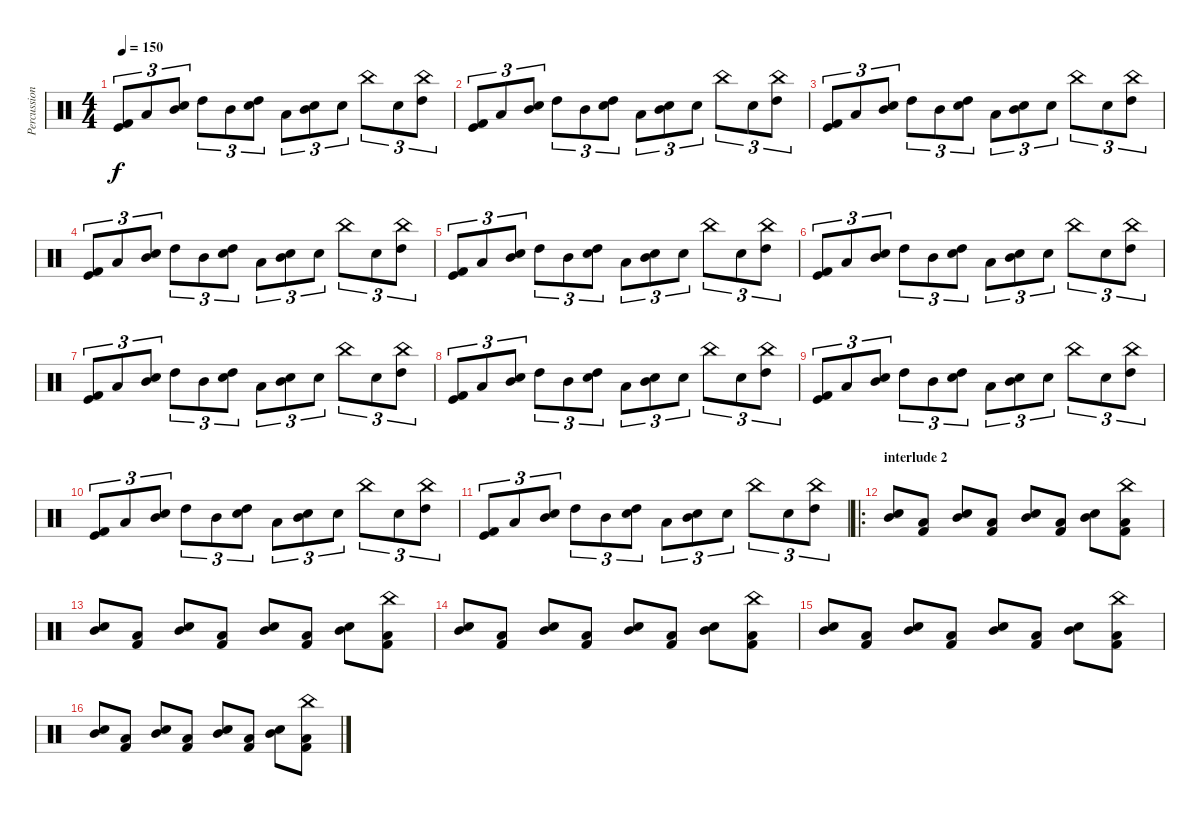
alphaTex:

\track ("Percussion" "Percussion") {instrument percussion}
\staff {score}
\articulation defaults
\ts (4 4)
\tempo 150
\clef neutral
\ks c
("Kick (hit) 2" "Kick (hit)").8{tu (3 2) dy f} "Low Tom (hit)".8{tu (3 2)} ("Mid Tom (hit)" "Snare (hit) 2").8{tu (3 2)} "High Tom (hit)".8{tu (3 2)} "Mid Tom (hit)".8{tu (3 2)} ("High Tom (hit)" "Snare (hit) 2").8{tu (3 2)} "Low Tom (hit)".8{tu (3 2)} ("Mid Tom (hit)" "Snare (hit) 2").8{tu (3 2)} "Snare (hit) 2".8{tu (3 2)} "China (hit)".8{tu (3 2)} "Snare (hit) 2".8{tu (3 2)} ("High Tom (hit)" "China (hit)").8{tu (3 2)} |
("Kick (hit) 2" "Kick (hit)").8{tu (3 2)} "Low Tom (hit)".8{tu (3 2)} ("Mid Tom (hit)" "Snare (hit) 2").8{tu (3 2)} "High Tom (hit)".8{tu (3 2)} "Mid Tom (hit)".8{tu (3 2)} ("High Tom (hit)" "Snare (hit) 2").8{tu (3 2)} "Low Tom (hit)".8{tu (3 2)} ("Mid Tom (hit)" "Snare (hit) 2").8{tu (3 2)} "Snare (hit) 2".8{tu (3 2)} "China (hit)".8{tu (3 2)} "Snare (hit) 2".8{tu (3 2)} ("High Tom (hit)" "China (hit)").8{tu (3 2)} |
("Kick (hit) 2" "Kick (hit)").8{tu (3 2)} "Low Tom (hit)".8{tu (3 2)} ("Mid Tom (hit)" "Snare (hit) 2").8{tu (3 2)} "High Tom (hit)".8{tu (3 2)} "Mid Tom (hit)".8{tu (3 2)} ("High Tom (hit)" "Snare (hit) 2").8{tu (3 2)} "Low Tom (hit)".8{tu (3 2)} ("Mid Tom (hit)" "Snare (hit) 2").8{tu (3 2)} "Snare (hit) 2".8{tu (3 2)} "China (hit)".8{tu (3 2)} "Snare (hit) 2".8{tu (3 2)} ("High Tom (hit)" "China (hit)").8{tu (3 2)} |
("Kick (hit) 2" "Kick (hit)").8{tu (3 2)} "Low Tom (hit)".8{tu (3 2)} ("Mid Tom (hit)" "Snare (hit) 2").8{tu (3 2)} "High Tom (hit)".8{tu (3 2)} "Mid Tom (hit)".8{tu (3 2)} ("High Tom (hit)" "Snare (hit) 2").8{tu (3 2)} "Low Tom (hit)".8{tu (3 2)} ("Mid Tom (hit)" "Snare (hit) 2").8{tu (3 2)} "Snare (hit) 2".8{tu (3 2)} "China (hit)".8{tu (3 2)} "Snare (hit) 2".8{tu (3 2)} ("High Tom (hit)" "China (hit)").8{tu (3 2)} |
("Kick (hit) 2" "Kick (hit)").8{tu (3 2)} "Low Tom (hit)".8{tu (3 2)} ("Mid Tom (hit)" "Snare (hit) 2").8{tu (3 2)} "High Tom (hit)".8{tu (3 2)} "Mid Tom (hit)".8{tu (3 2)} ("High Tom (hit)" "Snare (hit) 2").8{tu (3 2)} "Low Tom (hit)".8{tu (3 2)} ("Mid Tom (hit)" "Snare (hit) 2").8{tu (3 2)} "Snare (hit) 2".8{tu (3 2)} "China (hit)".8{tu (3 2)} "Snare (hit) 2".8{tu (3 2)} ("High Tom (hit)" "China (hit)").8{tu (3 2)} |
("Kick (hit) 2" "Kick (hit)").8{tu (3 2)} "Low Tom (hit)".8{tu (3 2)} ("Mid Tom (hit)" "Snare (hit) 2").8{tu (3 2)} "High Tom (hit)".8{tu (3 2)} "Mid Tom (hit)".8{tu (3 2)} ("High Tom (hit)" "Snare (hit) 2").8{tu (3 2)} "Low Tom (hit)".8{tu (3 2)} ("Mid Tom (hit)" "Snare (hit) 2").8{tu (3 2)} "Snare (hit) 2".8{tu (3 2)} "China (hit)".8{tu (3 2)} "Snare (hit) 2".8{tu (3 2)} ("High Tom (hit)" "China (hit)").8{tu (3 2)} |
("Kick (hit) 2" "Kick (hit)").8{tu (3 2)} "Low Tom (hit)".8{tu (3 2)} ("Mid Tom (hit)" "Snare (hit) 2").8{tu (3 2)} "High Tom (hit)".8{tu (3 2)} "Mid Tom (hit)".8{tu (3 2)} ("High Tom (hit)" "Snare (hit) 2").8{tu (3 2)} "Low Tom (hit)".8{tu (3 2)} ("Mid Tom (hit)" "Snare (hit) 2").8{tu (3 2)} "Snare (hit) 2".8{tu (3 2)} "China (hit)".8{tu (3 2)} "Snare (hit) 2".8{tu (3 2)} ("High Tom (hit)" "China (hit)").8{tu (3 2)} |
("Kick (hit) 2" "Kick (hit)").8{tu (3 2)} "Low Tom (hit)".8{tu (3 2)} ("Mid Tom (hit)" "Snare (hit) 2").8{tu (3 2)} "High Tom (hit)".8{tu (3 2)} "Mid Tom (hit)".8{tu (3 2)} ("High Tom (hit)" "Snare (hit) 2").8{tu (3 2)} "Low Tom (hit)".8{tu (3 2)} ("Mid Tom (hit)" "Snare (hit) 2").8{tu (3 2)} "Snare (hit) 2".8{tu (3 2)} "China (hit)".8{tu (3 2)} "Snare (hit) 2".8{tu (3 2)} ("High Tom (hit)" "China (hit)").8{tu (3 2)} |
("Kick (hit) 2" "Kick (hit)").8{tu (3 2)} "Low Tom (hit)".8{tu (3 2)} ("Mid Tom (hit)" "Snare (hit) 2").8{tu (3 2)} "High Tom (hit)".8{tu (3 2)} "Mid Tom (hit)".8{tu (3 2)} ("High Tom (hit)" "Snare (hit) 2").8{tu (3 2)} "Low Tom (hit)".8{tu (3 2)} ("Mid Tom (hit)" "Snare (hit) 2").8{tu (3 2)} "Snare (hit) 2".8{tu (3 2)} "China (hit)".8{tu (3 2)} "Snare (hit) 2".8{tu (3 2)} ("High Tom (hit)" "China (hit)").8{tu (3 2)} |
("Kick (hit) 2" "Kick (hit)").8{tu (3 2)} "Low Tom (hit)".8{tu (3 2)} ("Mid Tom (hit)" "Snare (hit) 2").8{tu (3 2)} "High Tom (hit)".8{tu (3 2)} "Mid Tom (hit)".8{tu (3 2)} ("High Tom (hit)" "Snare (hit) 2").8{tu (3 2)} "Low Tom (hit)".8{tu (3 2)} ("Mid Tom (hit)" "Snare (hit) 2").8{tu (3 2)} "Snare (hit) 2".8{tu (3 2)} "China (hit)".8{tu (3 2)} "Snare (hit) 2".8{tu (3 2)} ("High Tom (hit)" "China (hit)").8{tu (3 2)} |
("Kick (hit) 2" "Kick (hit)").8{tu (3 2)} "Low Tom (hit)".8{tu (3 2)} ("Mid Tom (hit)" "Snare (hit) 2").8{tu (3 2)} "High Tom (hit)".8{tu (3 2)} "Mid Tom (hit)".8{tu (3 2)} ("High Tom (hit)" "Snare (hit) 2").8{tu (3 2)} "Low Tom (hit)".8{tu (3 2)} ("Mid Tom (hit)" "Snare (hit) 2").8{tu (3 2)} "Snare (hit) 2".8{tu (3 2)} "China (hit)".8{tu (3 2)} "Snare (hit) 2".8{tu (3 2)} ("High Tom (hit)" "China (hit)").8{tu (3 2)} |
\ro
\section ("" "interlude 2")
("Snare (hit) 2" "Mid Tom (hit)").8 ("Low Tom (hit)" "Kick (hit) 2").8 ("Snare (hit) 2" "Mid Tom (hit)").8 ("Low Tom (hit)" "Kick (hit) 2").8 ("Snare (hit) 2" "Mid Tom (hit)").8 ("Low Tom (hit)" "Kick (hit) 2").8 ("Snare (hit) 2" "Mid Tom (hit)").8 ("China (hit)" "Low Tom (hit)" "Kick (hit) 2").8 |
("Snare (hit) 2" "Mid Tom (hit)").8 ("Low Tom (hit)" "Kick (hit) 2").8 ("Snare (hit) 2" "Mid Tom (hit)").8 ("Low Tom (hit)" "Kick (hit) 2").8 ("Snare (hit) 2" "Mid Tom (hit)").8 ("Low Tom (hit)" "Kick (hit) 2").8 ("Snare (hit) 2" "Mid Tom (hit)").8 ("China (hit)" "Low Tom (hit)" "Kick (hit) 2").8 |
("Snare (hit) 2" "Mid Tom (hit)").8 ("Low Tom (hit)" "Kick (hit) 2").8 ("Snare (hit) 2" "Mid Tom (hit)").8 ("Low Tom (hit)" "Kick (hit) 2").8 ("Snare (hit) 2" "Mid Tom (hit)").8 ("Low Tom (hit)" "Kick (hit) 2").8 ("Snare (hit) 2" "Mid Tom (hit)").8 ("China (hit)" "Low Tom (hit)" "Kick (hit) 2").8 |
("Snare (hit) 2" "Mid Tom (hit)").8 ("Low Tom (hit)" "Kick (hit) 2").8 ("Snare (hit) 2" "Mid Tom (hit)").8 ("Low Tom (hit)" "Kick (hit) 2").8 ("Snare (hit) 2" "Mid Tom (hit)").8 ("Low Tom (hit)" "Kick (hit) 2").8 ("Snare (hit) 2" "Mid Tom (hit)").8 ("China (hit)" "Low Tom (hit)" "Kick (hit) 2").8 |
("Snare (hit) 2" "Mid Tom (hit)").8 ("Low Tom (hit)" "Kick (hit) 2").8 ("Snare (hit) 2" "Mid Tom (hit)").8 ("Low Tom (hit)" "Kick (hit) 2").8 ("Snare (hit) 2" "Mid Tom (hit)").8 ("Low Tom (hit)" "Kick (hit) 2").8 ("Snare (hit) 2" "Mid Tom (hit)").8 ("China (hit)" "Low Tom (hit)" "Kick (hit) 2").8
